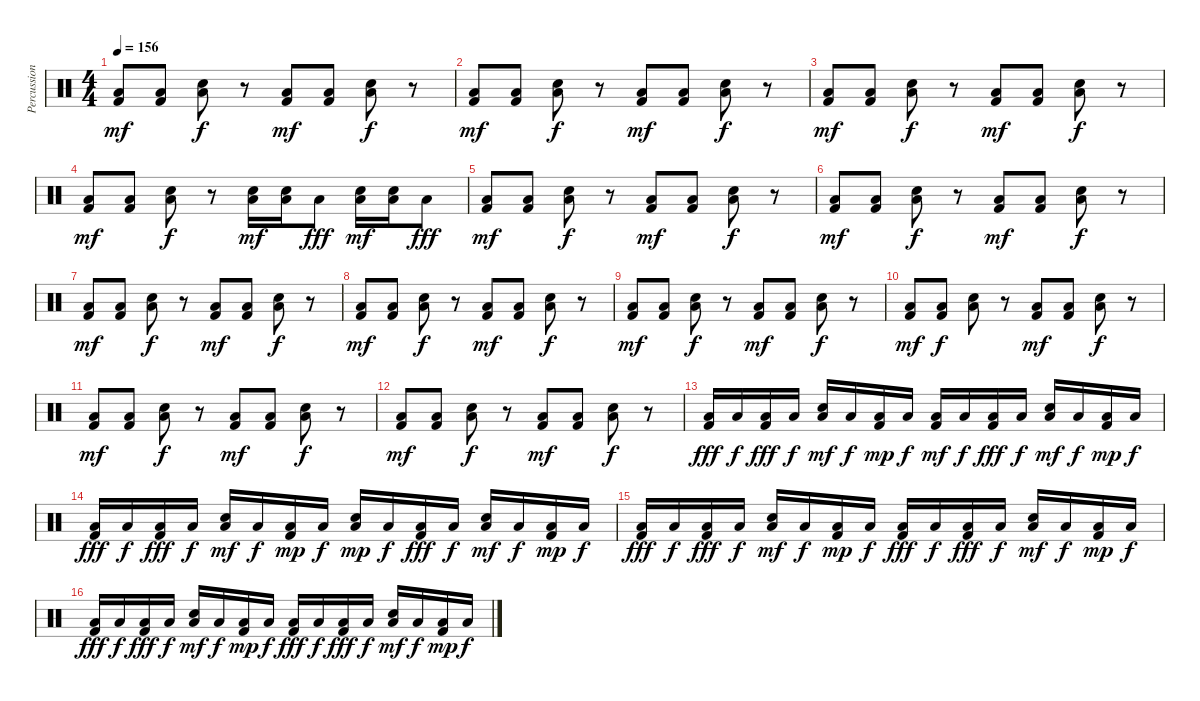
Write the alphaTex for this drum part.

\track ("Percussion" "Percussion") {instrument percussion}
\staff {score}
\articulation defaults
\ts (4 4)
\tempo 156
\clef neutral
\ks c
("Low Floor Tom (hit)" "Kick (hit) 2").8{dy mf} ("Low Floor Tom (hit)" "Kick (hit) 2").8 ("Low Floor Tom (hit)" "Electric Snare (hit)").8{dy f} r.8 ("Low Floor Tom (hit)" "Kick (hit) 2").8{dy mf} ("Low Floor Tom (hit)" "Kick (hit) 2").8 ("Low Floor Tom (hit)" "Electric Snare (hit)").8{dy f} r.8 |
("Low Floor Tom (hit)" "Kick (hit) 2").8{dy mf} ("Low Floor Tom (hit)" "Kick (hit) 2").8 ("Low Floor Tom (hit)" "Electric Snare (hit)").8{dy f} r.8 ("Low Floor Tom (hit)" "Kick (hit) 2").8{dy mf} ("Low Floor Tom (hit)" "Kick (hit) 2").8 ("Low Floor Tom (hit)" "Electric Snare (hit)").8{dy f} r.8 |
("Low Floor Tom (hit)" "Kick (hit) 2").8{dy mf} ("Low Floor Tom (hit)" "Kick (hit) 2").8 ("Low Floor Tom (hit)" "Electric Snare (hit)").8{dy f} r.8 ("Low Floor Tom (hit)" "Kick (hit) 2").8{dy mf} ("Low Floor Tom (hit)" "Kick (hit) 2").8 ("Low Floor Tom (hit)" "Electric Snare (hit)").8{dy f} r.8 |
("Low Floor Tom (hit)" "Kick (hit) 2").8{dy mf} ("Low Floor Tom (hit)" "Kick (hit) 2").8 ("Low Floor Tom (hit)" "Electric Snare (hit)").8{dy f} r.8 ("Low Floor Tom (hit)" "Electric Snare (hit)").16{dy mf} ("Low Floor Tom (hit)" "Electric Snare (hit)").16 "Low Floor Tom (hit)".8{dy fff} ("Low Floor Tom (hit)" "Electric Snare (hit)").16{dy mf} ("Low Floor Tom (hit)" "Electric Snare (hit)").16 "Low Floor Tom (hit)".8{dy fff} |
("Low Floor Tom (hit)" "Kick (hit) 2").8{dy mf} ("Low Floor Tom (hit)" "Kick (hit) 2").8 ("Low Floor Tom (hit)" "Electric Snare (hit)").8{dy f} r.8 ("Low Floor Tom (hit)" "Kick (hit) 2").8{dy mf} ("Low Floor Tom (hit)" "Kick (hit) 2").8 ("Low Floor Tom (hit)" "Electric Snare (hit)").8{dy f} r.8 |
("Low Floor Tom (hit)" "Kick (hit) 2").8{dy mf} ("Low Floor Tom (hit)" "Kick (hit) 2").8 ("Low Floor Tom (hit)" "Electric Snare (hit)").8{dy f} r.8 ("Low Floor Tom (hit)" "Kick (hit) 2").8{dy mf} ("Low Floor Tom (hit)" "Kick (hit) 2").8 ("Low Floor Tom (hit)" "Electric Snare (hit)").8{dy f} r.8 |
("Low Floor Tom (hit)" "Kick (hit) 2").8{dy mf} ("Low Floor Tom (hit)" "Kick (hit) 2").8 ("Low Floor Tom (hit)" "Electric Snare (hit)").8{dy f} r.8 ("Low Floor Tom (hit)" "Kick (hit) 2").8{dy mf} ("Low Floor Tom (hit)" "Kick (hit) 2").8 ("Low Floor Tom (hit)" "Electric Snare (hit)").8{dy f} r.8 |
("Low Floor Tom (hit)" "Kick (hit) 2").8{dy mf} ("Low Floor Tom (hit)" "Kick (hit) 2").8 ("Low Floor Tom (hit)" "Electric Snare (hit)").8{dy f} r.8 ("Low Floor Tom (hit)" "Kick (hit) 2").8{dy mf} ("Low Floor Tom (hit)" "Kick (hit) 2").8 ("Low Floor Tom (hit)" "Electric Snare (hit)").8{dy f} r.8 |
("Low Floor Tom (hit)" "Kick (hit) 2").8{dy mf} ("Low Floor Tom (hit)" "Kick (hit) 2").8 ("Low Floor Tom (hit)" "Electric Snare (hit)").8{dy f} r.8 ("Low Floor Tom (hit)" "Kick (hit) 2").8{dy mf} ("Low Floor Tom (hit)" "Kick (hit) 2").8 ("Low Floor Tom (hit)" "Electric Snare (hit)").8{dy f} r.8 |
("Low Floor Tom (hit)" "Kick (hit) 2").8{dy mf} ("Low Floor Tom (hit)" "Kick (hit) 2").8{dy f} ("Low Floor Tom (hit)" "Electric Snare (hit)").8 r.8 ("Low Floor Tom (hit)" "Kick (hit) 2").8{dy mf} ("Low Floor Tom (hit)" "Kick (hit) 2").8 ("Low Floor Tom (hit)" "Electric Snare (hit)").8{dy f} r.8 |
("Low Floor Tom (hit)" "Kick (hit) 2").8{dy mf} ("Low Floor Tom (hit)" "Kick (hit) 2").8 ("Low Floor Tom (hit)" "Electric Snare (hit)").8{dy f} r.8 ("Low Floor Tom (hit)" "Kick (hit) 2").8{dy mf} ("Low Floor Tom (hit)" "Kick (hit) 2").8 ("Low Floor Tom (hit)" "Electric Snare (hit)").8{dy f} r.8 |
("Low Floor Tom (hit)" "Kick (hit) 2").8{dy mf} ("Low Floor Tom (hit)" "Kick (hit) 2").8 ("Low Floor Tom (hit)" "Electric Snare (hit)").8{dy f} r.8 ("Low Floor Tom (hit)" "Kick (hit) 2").8{dy mf} ("Low Floor Tom (hit)" "Kick (hit) 2").8 ("Low Floor Tom (hit)" "Electric Snare (hit)").8{dy f} r.8 |
("Low Floor Tom (hit)" "Kick (hit) 2").16{dy fff} "Low Floor Tom (hit)".16{dy f} ("Low Floor Tom (hit)" "Kick (hit) 2").16{dy fff} "Low Floor Tom (hit)".16{dy f} ("Low Floor Tom (hit)" "Electric Snare (hit)").16{dy mf} "Low Floor Tom (hit)".16{dy f} ("Low Floor Tom (hit)" "Kick (hit) 2").16{dy mp} "Low Floor Tom (hit)".16{dy f} ("Low Floor Tom (hit)" "Kick (hit) 2").16{dy mf} "Low Floor Tom (hit)".16{dy f} ("Low Floor Tom (hit)" "Kick (hit) 2").16{dy fff} "Low Floor Tom (hit)".16{dy f} ("Low Floor Tom (hit)" "Electric Snare (hit)").16{dy mf} "Low Floor Tom (hit)".16{dy f} ("Low Floor Tom (hit)" "Kick (hit) 2").16{dy mp} "Low Floor Tom (hit)".16{dy f} |
("Low Floor Tom (hit)" "Kick (hit) 2").16{dy fff} "Low Floor Tom (hit)".16{dy f} ("Low Floor Tom (hit)" "Kick (hit) 2").16{dy fff} "Low Floor Tom (hit)".16{dy f} ("Low Floor Tom (hit)" "Electric Snare (hit)").16{dy mf} "Low Floor Tom (hit)".16{dy f} ("Low Floor Tom (hit)" "Kick (hit) 2").16{dy mp} "Low Floor Tom (hit)".16{dy f} ("Low Floor Tom (hit)" "Electric Snare (hit)").16{dy mp} "Low Floor Tom (hit)".16{dy f} ("Low Floor Tom (hit)" "Kick (hit) 2").16{dy fff} "Low Floor Tom (hit)".16{dy f} ("Low Floor Tom (hit)" "Electric Snare (hit)").16{dy mf} "Low Floor Tom (hit)".16{dy f} ("Low Floor Tom (hit)" "Kick (hit) 2").16{dy mp} "Low Floor Tom (hit)".16{dy f} |
("Low Floor Tom (hit)" "Kick (hit) 2").16{dy fff} "Low Floor Tom (hit)".16{dy f} ("Low Floor Tom (hit)" "Kick (hit) 2").16{dy fff} "Low Floor Tom (hit)".16{dy f} ("Low Floor Tom (hit)" "Electric Snare (hit)").16{dy mf} "Low Floor Tom (hit)".16{dy f} ("Low Floor Tom (hit)" "Kick (hit) 2").16{dy mp} "Low Floor Tom (hit)".16{dy f} ("Low Floor Tom (hit)" "Kick (hit) 2").16{dy fff} "Low Floor Tom (hit)".16{dy f} ("Low Floor Tom (hit)" "Kick (hit) 2").16{dy fff} "Low Floor Tom (hit)".16{dy f} ("Low Floor Tom (hit)" "Electric Snare (hit)").16{dy mf} "Low Floor Tom (hit)".16{dy f} ("Low Floor Tom (hit)" "Kick (hit) 2").16{dy mp} "Low Floor Tom (hit)".16{dy f} |
("Low Floor Tom (hit)" "Kick (hit) 2").16{dy fff} "Low Floor Tom (hit)".16{dy f} ("Low Floor Tom (hit)" "Kick (hit) 2").16{dy fff} "Low Floor Tom (hit)".16{dy f} ("Low Floor Tom (hit)" "Electric Snare (hit)").16{dy mf} "Low Floor Tom (hit)".16{dy f} ("Low Floor Tom (hit)" "Kick (hit) 2").16{dy mp} "Low Floor Tom (hit)".16{dy f} ("Low Floor Tom (hit)" "Kick (hit) 2").16{dy fff} "Low Floor Tom (hit)".16{dy f} ("Low Floor Tom (hit)" "Kick (hit) 2").16{dy fff} "Low Floor Tom (hit)".16{dy f} ("Low Floor Tom (hit)" "Electric Snare (hit)").16{dy mf} "Low Floor Tom (hit)".16{dy f} ("Low Floor Tom (hit)" "Kick (hit) 2").16{dy mp} "Low Floor Tom (hit)".16{dy f}
